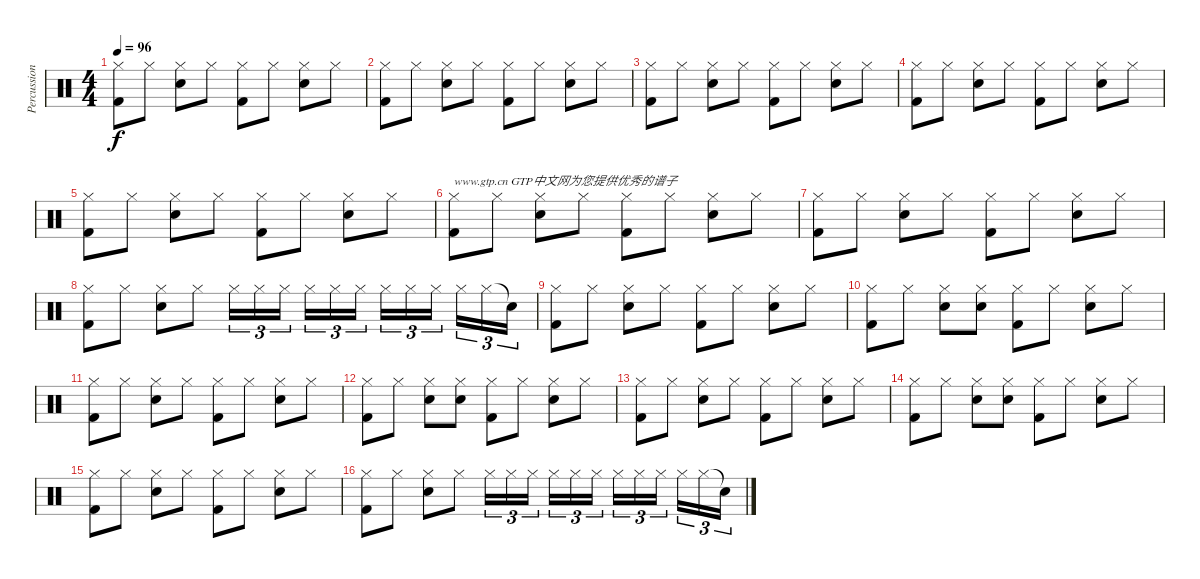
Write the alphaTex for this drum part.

\track ("Percussion" "Percussion") {instrument percussion}
\staff {score}
\articulation defaults
\ts (4 4)
\tempo 96
\clef neutral
\ks c
("Hi-Hat (closed)" "Kick (hit) 2").8{dy f} "Hi-Hat (closed)".8 ("Hi-Hat (closed)" "Snare (hit) 2").8 "Hi-Hat (closed)".8 ("Hi-Hat (closed)" "Kick (hit) 2").8 "Hi-Hat (closed)".8 ("Hi-Hat (closed)" "Snare (hit) 2").8 "Hi-Hat (closed)".8 |
("Hi-Hat (closed)" "Kick (hit) 2").8 "Hi-Hat (closed)".8 ("Hi-Hat (closed)" "Snare (hit) 2").8 "Hi-Hat (closed)".8 ("Hi-Hat (closed)" "Kick (hit) 2").8 "Hi-Hat (closed)".8 ("Hi-Hat (closed)" "Snare (hit) 2").8 "Hi-Hat (closed)".8 |
("Hi-Hat (closed)" "Kick (hit) 2").8 "Hi-Hat (closed)".8 ("Hi-Hat (closed)" "Snare (hit) 2").8 "Hi-Hat (closed)".8 ("Hi-Hat (closed)" "Kick (hit) 2").8 "Hi-Hat (closed)".8 ("Hi-Hat (closed)" "Snare (hit) 2").8 "Hi-Hat (closed)".8 |
("Hi-Hat (closed)" "Kick (hit) 2").8 "Hi-Hat (closed)".8 ("Hi-Hat (closed)" "Snare (hit) 2").8 "Hi-Hat (closed)".8 ("Hi-Hat (closed)" "Kick (hit) 2").8 "Hi-Hat (closed)".8 ("Hi-Hat (closed)" "Snare (hit) 2").8 "Hi-Hat (closed)".8 |
("Hi-Hat (closed)" "Kick (hit) 2").8 "Hi-Hat (closed)".8 ("Hi-Hat (closed)" "Snare (hit) 2").8 "Hi-Hat (closed)".8 ("Hi-Hat (closed)" "Kick (hit) 2").8 "Hi-Hat (closed)".8 ("Hi-Hat (closed)" "Snare (hit) 2").8 "Hi-Hat (closed)".8 |
("Hi-Hat (closed)" "Kick (hit) 2").8{txt "www.gtp.cn GTP中文网为您提供优秀的谱子"} "Hi-Hat (closed)".8 ("Hi-Hat (closed)" "Snare (hit) 2").8 "Hi-Hat (closed)".8 ("Hi-Hat (closed)" "Kick (hit) 2").8 "Hi-Hat (closed)".8 ("Hi-Hat (closed)" "Snare (hit) 2").8 "Hi-Hat (closed)".8 |
("Hi-Hat (closed)" "Kick (hit) 2").8 "Hi-Hat (closed)".8 ("Hi-Hat (closed)" "Snare (hit) 2").8 "Hi-Hat (closed)".8 ("Hi-Hat (closed)" "Kick (hit) 2").8 "Hi-Hat (closed)".8 ("Hi-Hat (closed)" "Snare (hit) 2").8 "Hi-Hat (closed)".8 |
("Hi-Hat (closed)" "Kick (hit) 2").8 "Hi-Hat (closed)".8 ("Hi-Hat (closed)" "Snare (hit) 2").8 "Hi-Hat (closed)".8 "Hi-Hat (closed)".16{tu (3 2)} "Hi-Hat (closed)".16{tu (3 2)} "Hi-Hat (closed)".16{tu (3 2)} "Hi-Hat (closed)".16{tu (3 2)} "Hi-Hat (closed)".16{tu (3 2)} "Hi-Hat (closed)".16{tu (3 2)} "Hi-Hat (closed)".16{tu (3 2)} "Hi-Hat (closed)".16{tu (3 2)} "Hi-Hat (closed)".16{tu (3 2)} "Hi-Hat (closed)".16{tu (3 2)} "Hi-Hat (closed)".16{tu (3 2)} "Snare (hit)"{t}.16{tu (3 2)} |
("Hi-Hat (closed)" "Kick (hit) 2").8 "Hi-Hat (closed)".8 ("Hi-Hat (closed)" "Snare (hit) 2").8 "Hi-Hat (closed)".8 ("Hi-Hat (closed)" "Kick (hit) 2").8 "Hi-Hat (closed)".8 ("Hi-Hat (closed)" "Snare (hit) 2").8 "Hi-Hat (closed)".8 |
("Hi-Hat (closed)" "Kick (hit) 2").8 "Hi-Hat (closed)".8 ("Hi-Hat (closed)" "Snare (hit) 2").8 ("Hi-Hat (closed)" "Snare (hit) 2").8 ("Hi-Hat (closed)" "Kick (hit) 2").8 "Hi-Hat (closed)".8 ("Hi-Hat (closed)" "Snare (hit) 2").8 "Hi-Hat (closed)".8 |
("Hi-Hat (closed)" "Kick (hit) 2").8 "Hi-Hat (closed)".8 ("Hi-Hat (closed)" "Snare (hit) 2").8 "Hi-Hat (closed)".8 ("Hi-Hat (closed)" "Kick (hit) 2").8 "Hi-Hat (closed)".8 ("Hi-Hat (closed)" "Snare (hit) 2").8 "Hi-Hat (closed)".8 |
("Hi-Hat (closed)" "Kick (hit) 2").8 "Hi-Hat (closed)".8 ("Hi-Hat (closed)" "Snare (hit) 2").8 ("Hi-Hat (closed)" "Snare (hit) 2").8 ("Hi-Hat (closed)" "Kick (hit) 2").8 "Hi-Hat (closed)".8 ("Hi-Hat (closed)" "Snare (hit) 2").8 "Hi-Hat (closed)".8 |
("Hi-Hat (closed)" "Kick (hit) 2").8 "Hi-Hat (closed)".8 ("Hi-Hat (closed)" "Snare (hit) 2").8 "Hi-Hat (closed)".8 ("Hi-Hat (closed)" "Kick (hit) 2").8 "Hi-Hat (closed)".8 ("Hi-Hat (closed)" "Snare (hit) 2").8 "Hi-Hat (closed)".8 |
("Hi-Hat (closed)" "Kick (hit) 2").8 "Hi-Hat (closed)".8 ("Hi-Hat (closed)" "Snare (hit) 2").8 ("Hi-Hat (closed)" "Snare (hit) 2").8 ("Hi-Hat (closed)" "Kick (hit) 2").8 "Hi-Hat (closed)".8 ("Hi-Hat (closed)" "Snare (hit) 2").8 "Hi-Hat (closed)".8 |
("Hi-Hat (closed)" "Kick (hit) 2").8 "Hi-Hat (closed)".8 ("Hi-Hat (closed)" "Snare (hit) 2").8 "Hi-Hat (closed)".8 ("Hi-Hat (closed)" "Kick (hit) 2").8 "Hi-Hat (closed)".8 ("Hi-Hat (closed)" "Snare (hit) 2").8 "Hi-Hat (closed)".8 |
("Hi-Hat (closed)" "Kick (hit) 2").8 "Hi-Hat (closed)".8 ("Hi-Hat (closed)" "Snare (hit) 2").8 "Hi-Hat (closed)".8 "Hi-Hat (closed)".16{tu (3 2)} "Hi-Hat (closed)".16{tu (3 2)} "Hi-Hat (closed)".16{tu (3 2)} "Hi-Hat (closed)".16{tu (3 2)} "Hi-Hat (closed)".16{tu (3 2)} "Hi-Hat (closed)".16{tu (3 2)} "Hi-Hat (closed)".16{tu (3 2)} "Hi-Hat (closed)".16{tu (3 2)} "Hi-Hat (closed)".16{tu (3 2)} "Hi-Hat (closed)".16{tu (3 2)} "Hi-Hat (closed)".16{tu (3 2)} "Snare (hit)"{t}.16{tu (3 2)}
